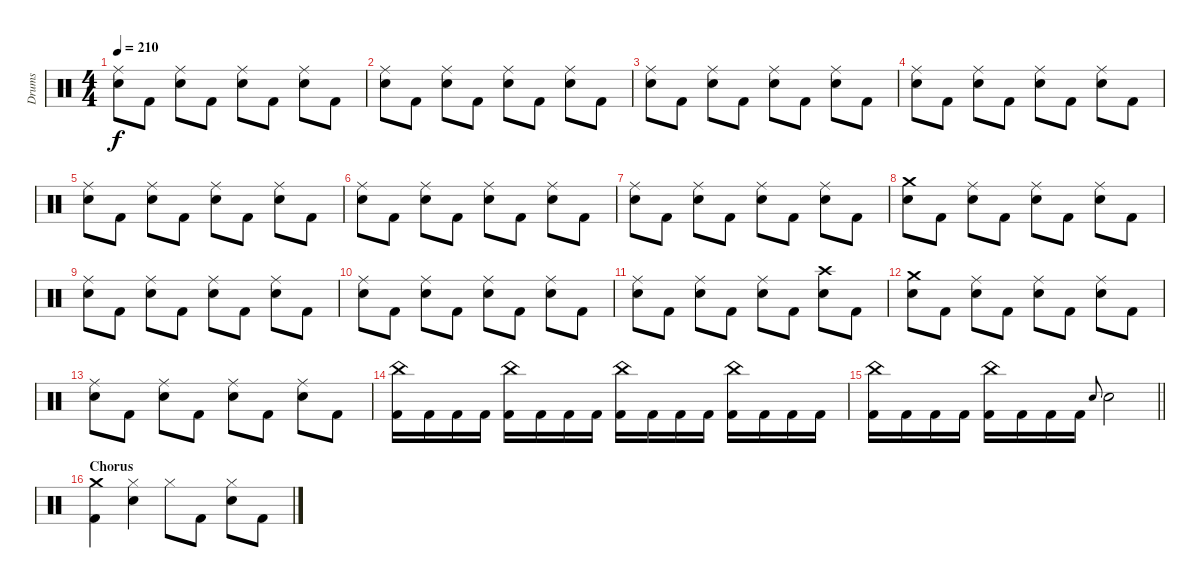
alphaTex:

\track ("Drums" "Drums") {instrument percussion}
\staff {score}
\articulation defaults
\ts (4 4)
\tempo 210
\clef neutral
\ks c
("Snare (hit) 2" "Ride (middle)").8{dy f} "Kick (hit) 2".8 ("Snare (hit) 2" "Ride (middle)").8 "Kick (hit) 2".8 ("Snare (hit) 2" "Ride (middle)").8 "Kick (hit) 2".8 ("Snare (hit) 2" "Ride (middle)").8 "Kick (hit) 2".8 |
("Snare (hit) 2" "Ride (middle)").8 "Kick (hit) 2".8 ("Snare (hit) 2" "Ride (middle)").8 "Kick (hit) 2".8 ("Snare (hit) 2" "Ride (middle)").8 "Kick (hit) 2".8 ("Snare (hit) 2" "Ride (middle)").8 "Kick (hit) 2".8 |
("Snare (hit) 2" "Ride (middle)").8 "Kick (hit) 2".8 ("Snare (hit) 2" "Ride (middle)").8 "Kick (hit) 2".8 ("Snare (hit) 2" "Ride (middle)").8 "Kick (hit) 2".8 ("Snare (hit) 2" "Ride (middle)").8 "Kick (hit) 2".8 |
("Snare (hit) 2" "Ride (middle)").8 "Kick (hit) 2".8 ("Snare (hit) 2" "Ride (middle)").8 "Kick (hit) 2".8 ("Snare (hit) 2" "Ride (middle)").8 "Kick (hit) 2".8 ("Snare (hit) 2" "Ride (middle)").8 "Kick (hit) 2".8 |
("Snare (hit) 2" "Ride (middle)").8 "Kick (hit) 2".8 ("Snare (hit) 2" "Ride (middle)").8 "Kick (hit) 2".8 ("Snare (hit) 2" "Ride (middle)").8 "Kick (hit) 2".8 ("Snare (hit) 2" "Ride (middle)").8 "Kick (hit) 2".8 |
("Snare (hit) 2" "Ride (middle)").8 "Kick (hit) 2".8 ("Snare (hit) 2" "Ride (middle)").8 "Kick (hit) 2".8 ("Snare (hit) 2" "Ride (middle)").8 "Kick (hit) 2".8 ("Snare (hit) 2" "Ride (middle)").8 "Kick (hit) 2".8 |
("Snare (hit) 2" "Ride (middle)").8 "Kick (hit) 2".8 ("Snare (hit) 2" "Ride (middle)").8 "Kick (hit) 2".8 ("Snare (hit) 2" "Ride (middle)").8 "Kick (hit) 2".8 ("Snare (hit) 2" "Ride (middle)").8 "Kick (hit) 2".8 |
("Snare (hit) 2" "Crash medium (hit)").8 "Kick (hit) 2".8 ("Snare (hit) 2" "Ride (middle)").8 "Kick (hit) 2".8 ("Snare (hit) 2" "Ride (middle)").8 "Kick (hit) 2".8 ("Snare (hit) 2" "Ride (middle)").8 "Kick (hit) 2".8 |
("Snare (hit) 2" "Ride (middle)").8 "Kick (hit) 2".8 ("Snare (hit) 2" "Ride (middle)").8 "Kick (hit) 2".8 ("Snare (hit) 2" "Ride (middle)").8 "Kick (hit) 2".8 ("Snare (hit) 2" "Ride (middle)").8 "Kick (hit) 2".8 |
("Snare (hit) 2" "Ride (middle)").8 "Kick (hit) 2".8 ("Snare (hit) 2" "Ride (middle)").8 "Kick (hit) 2".8 ("Snare (hit) 2" "Ride (middle)").8 "Kick (hit) 2".8 ("Snare (hit) 2" "Ride (middle)").8 "Kick (hit) 2".8 |
("Snare (hit) 2" "Ride (middle)").8 "Kick (hit) 2".8 ("Snare (hit) 2" "Ride (middle)").8 "Kick (hit) 2".8 ("Snare (hit) 2" "Ride (middle)").8 "Kick (hit) 2".8 ("Snare (hit) 2" "Crash high (hit)").8 "Kick (hit) 2".8 |
("Snare (hit) 2" "Crash medium (hit)").8 "Kick (hit) 2".8 ("Snare (hit) 2" "Ride (middle)").8 "Kick (hit) 2".8 ("Snare (hit) 2" "Ride (middle)").8 "Kick (hit) 2".8 ("Snare (hit) 2" "Ride (middle)").8 "Kick (hit) 2".8 |
("Snare (hit) 2" "Ride (middle)").8 "Kick (hit) 2".8 ("Snare (hit) 2" "Ride (middle)").8 "Kick (hit) 2".8 ("Snare (hit) 2" "Ride (middle)").8 "Kick (hit) 2".8 ("Snare (hit) 2" "Ride (middle)").8 "Kick (hit) 2".8 |
("Kick (hit) 2" "China (hit)").16 "Kick (hit) 2".16 "Kick (hit) 2".16 "Kick (hit) 2".16 ("Kick (hit) 2" "China (hit)").16 "Kick (hit) 2".16 "Kick (hit) 2".16 "Kick (hit) 2".16 ("Kick (hit) 2" "China (hit)").16 "Kick (hit) 2".16 "Kick (hit) 2".16 "Kick (hit) 2".16 ("Kick (hit) 2" "China (hit)").16 "Kick (hit) 2".16 "Kick (hit) 2".16 "Kick (hit) 2".16 |
\barLineRight lightlight
("Kick (hit) 2" "China (hit)").16 "Kick (hit) 2".16 "Kick (hit) 2".16 "Kick (hit) 2".16 ("Kick (hit) 2" "China (hit)").16 "Kick (hit) 2".16 "Kick (hit) 2".16 "Kick (hit) 2".16 "Snare (hit) 2".8{gr onbeat} "Snare (hit) 2".2 |
\section ("" "Chorus")
("Kick (hit) 2" "Crash medium (hit)").4 ("Snare (hit) 2" "Hi-Hat (closed)").4 "Hi-Hat (closed)".8 "Kick (hit) 2".8 ("Snare (hit) 2" "Hi-Hat (closed)").8 "Kick (hit) 2".8
